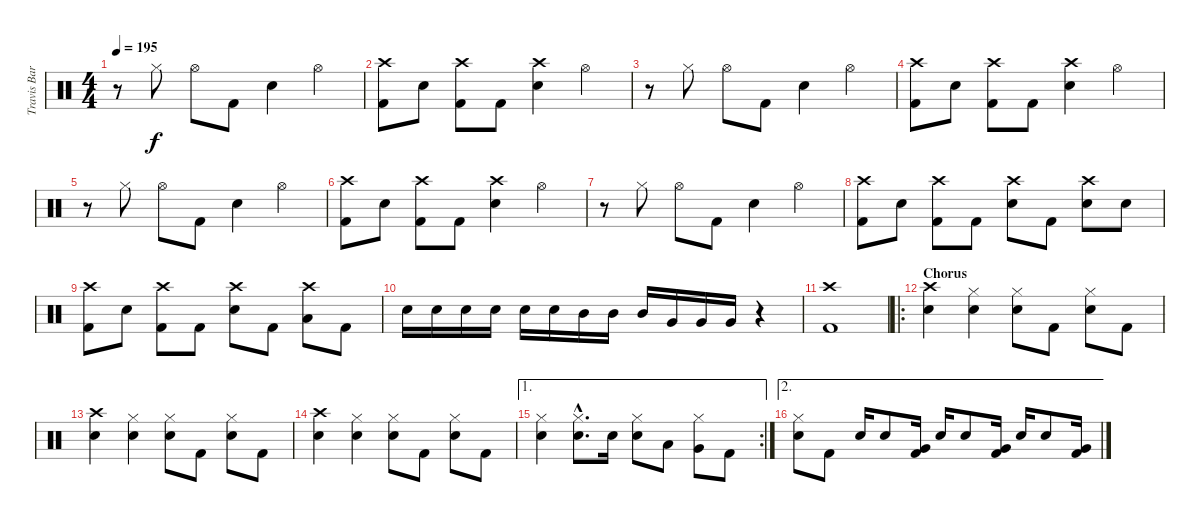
\track ("Travis Barker (Schlagzeug)" "Travis Bar") {instrument percussion}
\staff {score}
\articulation defaults
\ts (4 4)
\tempo 195
\clef neutral
\ks c
r.8{dy f} "Hi-Hat (closed)".8 "Hi-Hat (open)".8 "Kick (hit) 2".8 "Electric Snare (hit)".4 "Hi-Hat (open)".4 |
("Crash high (hit)" "Kick (hit) 2").8 "Electric Snare (hit)".8 ("Crash high (hit)" "Kick (hit) 2").8 "Kick (hit) 2".8 ("Crash high (hit)" "Electric Snare (hit)").4 "Hi-Hat (open)".4 |
r.8 "Hi-Hat (closed)".8 "Hi-Hat (open)".8 "Kick (hit) 2".8 "Electric Snare (hit)".4 "Hi-Hat (open)".4 |
("Crash high (hit)" "Kick (hit) 2").8 "Electric Snare (hit)".8 ("Crash high (hit)" "Kick (hit) 2").8 "Kick (hit) 2".8 ("Crash high (hit)" "Electric Snare (hit)").4 "Hi-Hat (open)".4 |
r.8 "Hi-Hat (closed)".8 "Hi-Hat (open)".8 "Kick (hit) 2".8 "Electric Snare (hit)".4 "Hi-Hat (open)".4 |
("Crash high (hit)" "Kick (hit) 2").8 "Electric Snare (hit)".8 ("Crash high (hit)" "Kick (hit) 2").8 "Kick (hit) 2".8 ("Crash high (hit)" "Electric Snare (hit)").4 "Hi-Hat (open)".4 |
r.8 "Hi-Hat (closed)".8 "Hi-Hat (open)".8 "Kick (hit) 2".8 "Electric Snare (hit)".4 "Hi-Hat (open)".4 |
("Crash high (hit)" "Kick (hit) 2").8 "Electric Snare (hit)".8 ("Crash high (hit)" "Kick (hit) 2").8 "Kick (hit) 2".8 ("Crash high (hit)" "Electric Snare (hit)").8 "Kick (hit) 2".8 ("Crash high (hit)" "Electric Snare (hit)").8 "Electric Snare (hit)".8 |
("Crash high (hit)" "Kick (hit) 2").8 "Electric Snare (hit)".8 ("Crash high (hit)" "Kick (hit) 2").8 "Kick (hit) 2".8 ("Crash high (hit)" "Electric Snare (hit)").8 "Kick (hit) 2".8 ("Low Tom (hit)" "Crash high (hit)").8 "Kick (hit) 2".8 |
"Electric Snare (hit)".16 "Electric Snare (hit)".16 "Electric Snare (hit)".16 "Electric Snare (hit)".16 "Electric Snare (hit)".16 "Electric Snare (hit)".16 "Mid Tom (hit)".16 "Mid Tom (hit)".16 "Mid Tom (hit)".16 "Very Low Tom (hit)".16 "Very Low Tom (hit)".16 "Very Low Tom (hit)".16 r.4 |
("Crash high (hit)" "Kick (hit) 2").1 |
\ro
\section ("" "Chorus")
("Crash high (hit)" "Electric Snare (hit)").4 ("Hi-Hat (closed)" "Electric Snare (hit)").4 ("Hi-Hat (closed)" "Electric Snare (hit)").8 "Kick (hit) 2".8 ("Hi-Hat (closed)" "Electric Snare (hit)").8 "Kick (hit) 2".8 |
("Crash high (hit)" "Electric Snare (hit)").4 ("Hi-Hat (closed)" "Electric Snare (hit)").4 ("Hi-Hat (closed)" "Electric Snare (hit)").8 "Kick (hit) 2".8 ("Hi-Hat (closed)" "Electric Snare (hit)").8 "Kick (hit) 2".8 |
("Crash high (hit)" "Electric Snare (hit)").4 ("Hi-Hat (closed)" "Electric Snare (hit)").4 ("Hi-Hat (closed)" "Electric Snare (hit)").8 "Kick (hit) 2".8 ("Hi-Hat (closed)" "Electric Snare (hit)").8 "Kick (hit) 2".8 |
\ae 1
\rc 2
("Hi-Hat (closed)" "Electric Snare (hit)").4 ("Hi-Hat (closed)"{hac} "Electric Snare (hit)"{hac}).8{d} "Electric Snare (hit)".16 ("Hi-Hat (closed)" "Electric Snare (hit)").8 "Low Tom (hit)".8 ("Very Low Tom (hit)" "Hi-Hat (closed)").8 "Kick (hit) 2".8 |
\ae 2
("Hi-Hat (closed)" "Electric Snare (hit)").8 "Kick (hit) 2".8 "Electric Snare (hit)".16 "Electric Snare (hit)".8 ("Very Low Tom (hit)" "Kick (hit) 2").16 "Electric Snare (hit)".16 "Electric Snare (hit)".8 ("Very Low Tom (hit)" "Kick (hit) 2").16 "Electric Snare (hit)".16 "Electric Snare (hit)".8 ("Very Low Tom (hit)" "Kick (hit) 2").16
